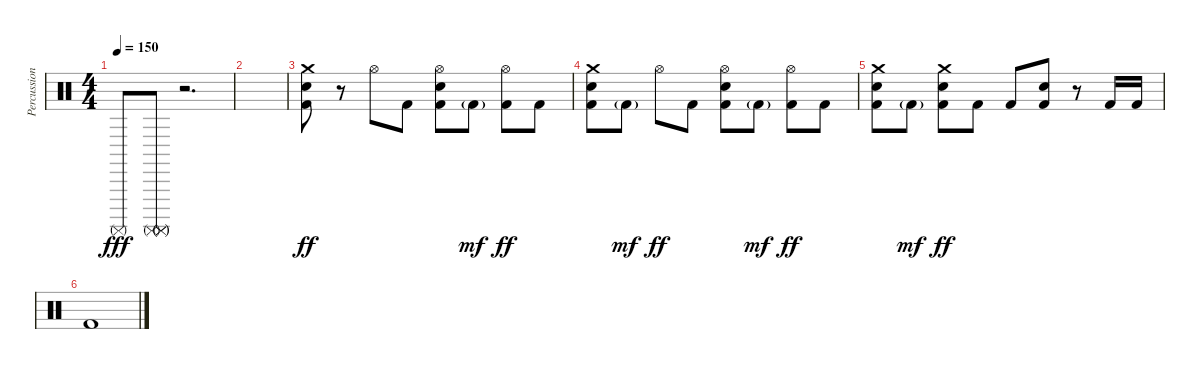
\track ("Percussions" "Percussion") {instrument percussion}
\staff {score}
\articulation defaults
\ts (4 4)
\tempo 150
\clef neutral
\ks c "Surdo (mute)".8{dy fff}
("Surdo (mute)" "Surdo (mute)" "Surdo (mute)").8 r.2{d} |
|
("Crash medium (hit)" "Electric Snare (hit)" "Kick (hit) 2").8{dy ff} r.8 "Hi-Hat (open)".8 "Kick (hit) 2".8 ("Hi-Hat (open)" "Electric Snare (hit)" "Kick (hit) 2").8 "Kick (hit) 2"{g}.8{dy mf} ("Hi-Hat (open)" "Kick (hit) 2").8{dy ff} "Kick (hit) 2".8 |
("Crash medium (hit)" "Electric Snare (hit)" "Kick (hit) 2").8 "Kick (hit) 2"{g}.8{dy mf} "Hi-Hat (open)".8{dy ff} "Kick (hit) 2".8 ("Hi-Hat (open)" "Electric Snare (hit)" "Kick (hit) 2").8 "Kick (hit) 2"{g}.8{dy mf} ("Hi-Hat (open)" "Kick (hit) 2").8{dy ff} "Kick (hit) 2".8 |
("Crash medium (hit)" "Electric Snare (hit)" "Kick (hit) 2").8 "Kick (hit) 2"{g}.8{dy mf} ("Crash medium (hit)" "Electric Snare (hit)" "Kick (hit) 2").8{dy ff} "Kick (hit) 2".8 "Kick (hit) 2".8 ("Electric Snare (hit)" "Kick (hit) 2").8 r.8 "Kick (hit) 2".16 "Kick (hit) 2".16 |
"Kick (hit) 2".1
